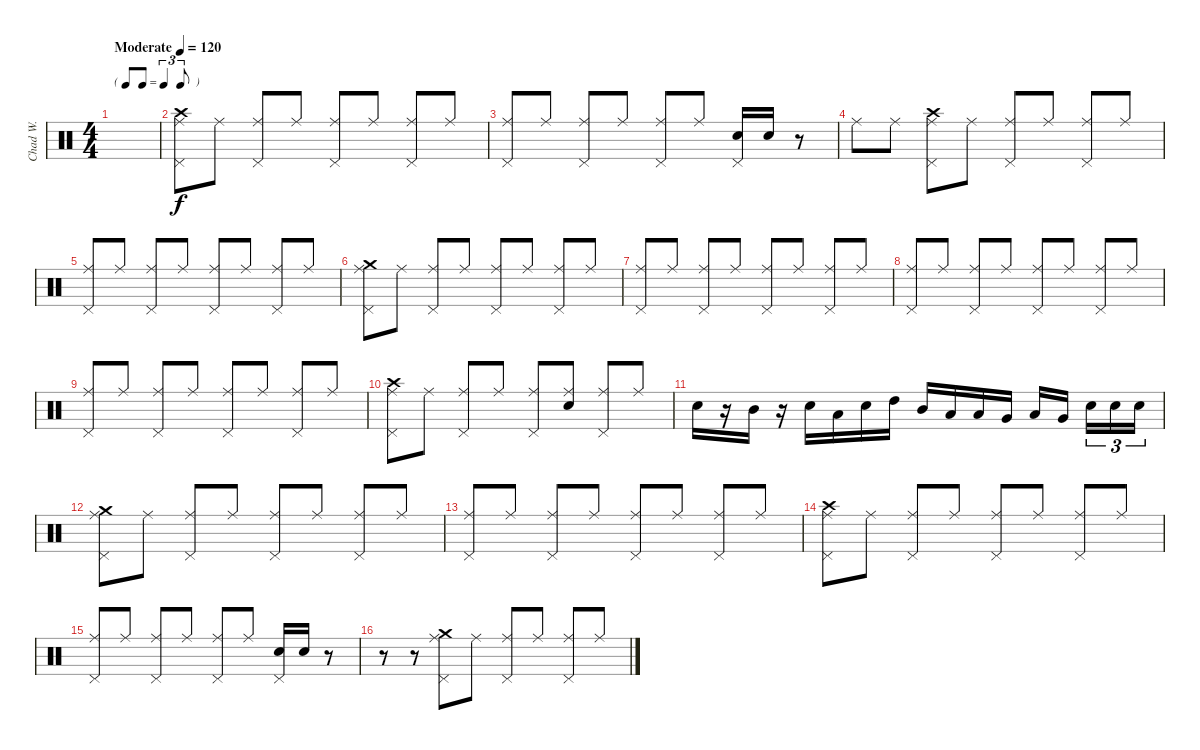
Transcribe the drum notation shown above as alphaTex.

\track ("Chad W." "Chad W.") {instrument percussion bank 177}
\staff {score}
\articulation defaults
\ts (4 4)
\tf triplet8th
\tempo (120 "Moderate")
\clef neutral
\ks c
|
("Crash high (hit)" "Ride (middle)" "Pedal Hi-Hat (hit)").8 "Ride (middle)".8 ("Ride (middle)" "Pedal Hi-Hat (hit)").8 "Ride (middle)".8 ("Ride (middle)" "Pedal Hi-Hat (hit)").8 "Ride (middle)".8 ("Ride (middle)" "Pedal Hi-Hat (hit)").8 "Ride (middle)".8 |
("Ride (middle)" "Pedal Hi-Hat (hit)").8 "Ride (middle)".8 ("Ride (middle)" "Pedal Hi-Hat (hit)").8 "Ride (middle)".8 ("Ride (middle)" "Pedal Hi-Hat (hit)").8 "Ride (middle)".8 ("Electric Snare (hit)" "Pedal Hi-Hat (hit)").16 "Electric Snare (hit)".16 r.8 |
"Ride (middle)".8 "Ride (middle)".8 ("Crash high (hit)" "Ride (middle)" "Pedal Hi-Hat (hit)").8 "Ride (middle)".8 ("Ride (middle)" "Pedal Hi-Hat (hit)").8 "Ride (middle)".8 ("Ride (middle)" "Pedal Hi-Hat (hit)").8 "Ride (middle)".8 |
("Ride (middle)" "Pedal Hi-Hat (hit)").8 "Ride (middle)".8 ("Ride (middle)" "Pedal Hi-Hat (hit)").8 "Ride (middle)".8 ("Ride (middle)" "Pedal Hi-Hat (hit)").8 "Ride (middle)".8 ("Ride (middle)" "Pedal Hi-Hat (hit)").8 "Ride (middle)".8 |
("Crash medium (hit)" "Ride (middle)" "Pedal Hi-Hat (hit)").8 "Ride (middle)".8 ("Ride (middle)" "Pedal Hi-Hat (hit)").8 "Ride (middle)".8 ("Ride (middle)" "Pedal Hi-Hat (hit)").8 "Ride (middle)".8 ("Ride (middle)" "Pedal Hi-Hat (hit)").8 "Ride (middle)".8 |
("Ride (middle)" "Pedal Hi-Hat (hit)").8 "Ride (middle)".8 ("Ride (middle)" "Pedal Hi-Hat (hit)").8 "Ride (middle)".8 ("Ride (middle)" "Pedal Hi-Hat (hit)").8 "Ride (middle)".8 ("Ride (middle)" "Pedal Hi-Hat (hit)").8 "Ride (middle)".8 |
("Ride (middle)" "Pedal Hi-Hat (hit)").8 "Ride (middle)".8 ("Ride (middle)" "Pedal Hi-Hat (hit)").8 "Ride (middle)".8 ("Ride (middle)" "Pedal Hi-Hat (hit)").8 "Ride (middle)".8 ("Ride (middle)" "Pedal Hi-Hat (hit)").8 "Ride (middle)".8 |
("Ride (middle)" "Pedal Hi-Hat (hit)").8 "Ride (middle)".8 ("Ride (middle)" "Pedal Hi-Hat (hit)").8 "Ride (middle)".8 ("Ride (middle)" "Pedal Hi-Hat (hit)").8 "Ride (middle)".8 ("Ride (middle)" "Pedal Hi-Hat (hit)").8 "Ride (middle)".8 |
("Crash high (hit)" "Ride (middle)" "Pedal Hi-Hat (hit)").8 "Ride (middle)".8 ("Ride (middle)" "Pedal Hi-Hat (hit)").8 "Ride (middle)".8 ("Ride (middle)" "Pedal Hi-Hat (hit)").8 ("Ride (middle)" "Electric Snare (hit)").8 ("Ride (middle)" "Pedal Hi-Hat (hit)").8 "Ride (middle)".8 |
"Electric Snare (hit)".16 r.16 "Mid Tom (hit)".16 r.16 "Electric Snare (hit)".16 "Low Tom (hit)".16 "Electric Snare (hit)".16 "High Tom (hit)".16 "Mid Tom (hit)".16 "Low Tom (hit)".16 "Low Tom (hit)".16 "Very Low Tom (hit)".16 "Low Floor Tom (hit)".16 "Very Low Tom (hit)".16{beam splitsecondary} "Electric Snare (hit)".16{tu (3 2)} "Electric Snare (hit)".16{tu (3 2)} "Electric Snare (hit)".16{tu (3 2)} |
("Crash medium (hit)" "Ride (middle)" "Pedal Hi-Hat (hit)").8 "Ride (middle)".8 ("Ride (middle)" "Pedal Hi-Hat (hit)").8 "Ride (middle)".8 ("Ride (middle)" "Pedal Hi-Hat (hit)").8 "Ride (middle)".8 ("Ride (middle)" "Pedal Hi-Hat (hit)").8 "Ride (middle)".8 |
("Ride (middle)" "Pedal Hi-Hat (hit)").8 "Ride (middle)".8 ("Ride (middle)" "Pedal Hi-Hat (hit)").8 "Ride (middle)".8 ("Ride (middle)" "Pedal Hi-Hat (hit)").8 "Ride (middle)".8 ("Ride (middle)" "Pedal Hi-Hat (hit)").8 "Ride (middle)".8 |
("Crash high (hit)" "Ride (middle)" "Pedal Hi-Hat (hit)").8 "Ride (middle)".8 ("Ride (middle)" "Pedal Hi-Hat (hit)").8 "Ride (middle)".8 ("Ride (middle)" "Pedal Hi-Hat (hit)").8 "Ride (middle)".8 ("Ride (middle)" "Pedal Hi-Hat (hit)").8 "Ride (middle)".8 |
("Ride (middle)" "Pedal Hi-Hat (hit)").8 "Ride (middle)".8 ("Ride (middle)" "Pedal Hi-Hat (hit)").8 "Ride (middle)".8 ("Ride (middle)" "Pedal Hi-Hat (hit)").8 "Ride (middle)".8 ("Electric Snare (hit)" "Pedal Hi-Hat (hit)").16 "Electric Snare (hit)".16 r.8 |
r.8 r.8 ("Crash medium (hit)" "Ride (middle)" "Pedal Hi-Hat (hit)").8 "Ride (middle)".8 ("Ride (middle)" "Pedal Hi-Hat (hit)").8 "Ride (middle)".8 ("Ride (middle)" "Pedal Hi-Hat (hit)").8 "Ride (middle)".8
